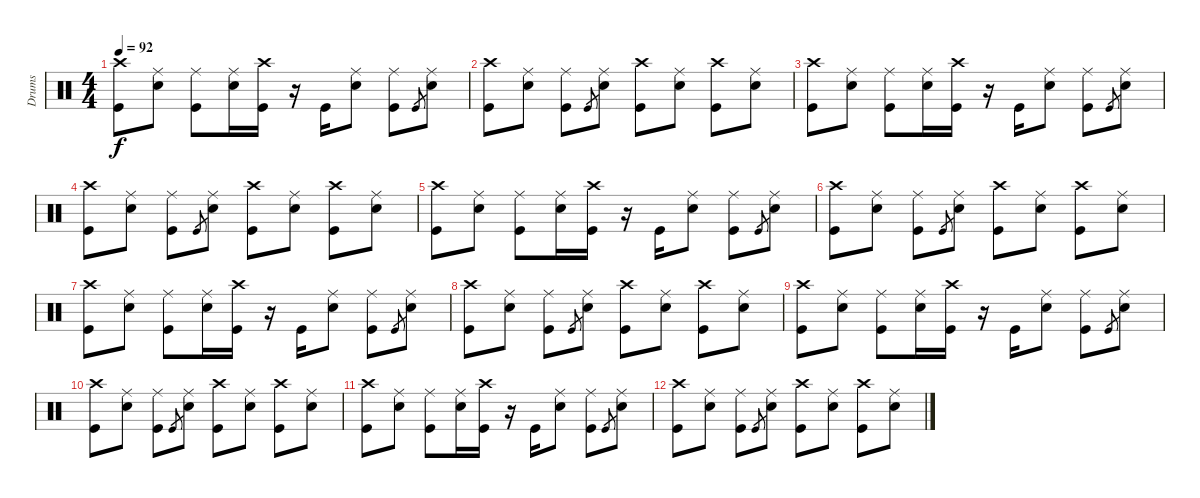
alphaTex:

\track ("Drums" "Drums") {instrument percussion}
\staff {score}
\articulation defaults
\ts (4 4)
\tempo 92
\clef neutral
\ks c
("Crash high (hit)" "Kick (hit)").8{dy f} ("Ride (middle)" "Snare (hit) 2").8 ("Ride (middle)" "Kick (hit)").8 ("Ride (middle)" "Snare (hit) 2").16 ("Crash high (hit)" "Kick (hit)").16 r.16 "Kick (hit)".16 ("Ride (middle)" "Snare (hit) 2").8 ("Ride (middle)" "Kick (hit)").8 "Kick (hit)".8{gr} ("Ride (middle)" "Snare (hit) 2").8 |
("Crash high (hit)" "Kick (hit)").8 ("Ride (middle)" "Snare (hit) 2").8 ("Ride (middle)" "Kick (hit)").8 "Kick (hit)".8{gr} ("Ride (middle)" "Snare (hit) 2").8 ("Crash high (hit)" "Kick (hit)").8 ("Ride (middle)" "Snare (hit) 2").8 ("Crash high (hit)" "Kick (hit)").8 ("Ride (middle)" "Snare (hit) 2").8 |
("Crash high (hit)" "Kick (hit)").8 ("Ride (middle)" "Snare (hit) 2").8 ("Ride (middle)" "Kick (hit)").8 ("Ride (middle)" "Snare (hit) 2").16 ("Crash high (hit)" "Kick (hit)").16 r.16 "Kick (hit)".16 ("Ride (middle)" "Snare (hit) 2").8 ("Ride (middle)" "Kick (hit)").8 "Kick (hit)".8{gr} ("Ride (middle)" "Snare (hit) 2").8 |
("Crash high (hit)" "Kick (hit)").8 ("Ride (middle)" "Snare (hit) 2").8 ("Ride (middle)" "Kick (hit)").8 "Kick (hit)".8{gr} ("Ride (middle)" "Snare (hit) 2").8 ("Crash high (hit)" "Kick (hit)").8 ("Ride (middle)" "Snare (hit) 2").8 ("Crash high (hit)" "Kick (hit)").8 ("Ride (middle)" "Snare (hit) 2").8 |
("Crash high (hit)" "Kick (hit)").8 ("Ride (middle)" "Snare (hit) 2").8 ("Ride (middle)" "Kick (hit)").8 ("Ride (middle)" "Snare (hit) 2").16 ("Crash high (hit)" "Kick (hit)").16 r.16 "Kick (hit)".16 ("Ride (middle)" "Snare (hit) 2").8 ("Ride (middle)" "Kick (hit)").8 "Kick (hit)".8{gr} ("Ride (middle)" "Snare (hit) 2").8 |
("Crash high (hit)" "Kick (hit)").8 ("Ride (middle)" "Snare (hit) 2").8 ("Ride (middle)" "Kick (hit)").8 "Kick (hit)".8{gr} ("Ride (middle)" "Snare (hit) 2").8 ("Crash high (hit)" "Kick (hit)").8 ("Ride (middle)" "Snare (hit) 2").8 ("Crash high (hit)" "Kick (hit)").8 ("Ride (middle)" "Snare (hit) 2").8 |
("Crash high (hit)" "Kick (hit)").8 ("Ride (middle)" "Snare (hit) 2").8 ("Ride (middle)" "Kick (hit)").8 ("Ride (middle)" "Snare (hit) 2").16 ("Crash high (hit)" "Kick (hit)").16 r.16 "Kick (hit)".16 ("Ride (middle)" "Snare (hit) 2").8 ("Ride (middle)" "Kick (hit)").8 "Kick (hit)".8{gr} ("Ride (middle)" "Snare (hit) 2").8 |
("Crash high (hit)" "Kick (hit)").8 ("Ride (middle)" "Snare (hit) 2").8 ("Ride (middle)" "Kick (hit)").8 "Kick (hit)".8{gr} ("Ride (middle)" "Snare (hit) 2").8 ("Crash high (hit)" "Kick (hit)").8 ("Ride (middle)" "Snare (hit) 2").8 ("Crash high (hit)" "Kick (hit)").8 ("Ride (middle)" "Snare (hit) 2").8 |
("Crash high (hit)" "Kick (hit)").8 ("Ride (middle)" "Snare (hit) 2").8 ("Ride (middle)" "Kick (hit)").8 ("Ride (middle)" "Snare (hit) 2").16 ("Crash high (hit)" "Kick (hit)").16 r.16 "Kick (hit)".16 ("Ride (middle)" "Snare (hit) 2").8 ("Ride (middle)" "Kick (hit)").8 "Kick (hit)".8{gr} ("Ride (middle)" "Snare (hit) 2").8 |
("Crash high (hit)" "Kick (hit)").8 ("Ride (middle)" "Snare (hit) 2").8 ("Ride (middle)" "Kick (hit)").8 "Kick (hit)".8{gr} ("Ride (middle)" "Snare (hit) 2").8 ("Crash high (hit)" "Kick (hit)").8 ("Ride (middle)" "Snare (hit) 2").8 ("Crash high (hit)" "Kick (hit)").8 ("Ride (middle)" "Snare (hit) 2").8 |
("Crash high (hit)" "Kick (hit)").8 ("Ride (middle)" "Snare (hit) 2").8 ("Ride (middle)" "Kick (hit)").8 ("Ride (middle)" "Snare (hit) 2").16 ("Crash high (hit)" "Kick (hit)").16 r.16 "Kick (hit)".16 ("Ride (middle)" "Snare (hit) 2").8 ("Ride (middle)" "Kick (hit)").8 "Kick (hit)".8{gr} ("Ride (middle)" "Snare (hit) 2").8 |
("Crash high (hit)" "Kick (hit)").8 ("Ride (middle)" "Snare (hit) 2").8 ("Ride (middle)" "Kick (hit)").8 "Kick (hit)".8{gr} ("Ride (middle)" "Snare (hit) 2").8 ("Crash high (hit)" "Kick (hit)").8 ("Ride (middle)" "Snare (hit) 2").8 ("Crash high (hit)" "Kick (hit)").8 ("Ride (middle)" "Snare (hit) 2").8
